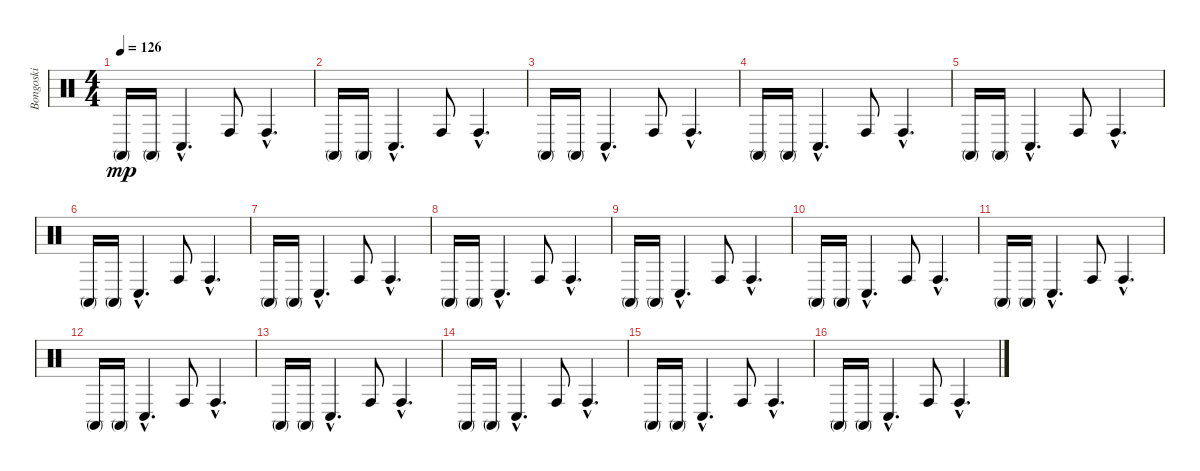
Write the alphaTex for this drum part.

\track ("Bongoski" "Bongoski") {instrument percussion}
\staff {score}
\articulation defaults
\ts (4 4)
\tempo 126
\clef neutral
\ks c "Conga high (mute)".16{dy mp} "Conga high (mute)".16 "Conga low (hit)"{hac}.4{d} "Conga high (hit)".8 "Conga high (hit)"{hac}.4{d}
|
"Conga high (mute)".16 "Conga high (mute)".16 "Conga low (hit)"{hac}.4{d} "Conga high (hit)".8 "Conga high (hit)"{hac}.4{d} |
"Conga high (mute)".16 "Conga high (mute)".16 "Conga low (hit)"{hac}.4{d} "Conga high (hit)".8 "Conga high (hit)"{hac}.4{d} |
"Conga high (mute)".16 "Conga high (mute)".16 "Conga low (hit)"{hac}.4{d} "Conga high (hit)".8 "Conga high (hit)"{hac}.4{d} |
"Conga high (mute)".16 "Conga high (mute)".16 "Conga low (hit)"{hac}.4{d} "Conga high (hit)".8 "Conga high (hit)"{hac}.4{d} |
"Conga high (mute)".16 "Conga high (mute)".16 "Conga low (hit)"{hac}.4{d} "Conga high (hit)".8 "Conga high (hit)"{hac}.4{d} |
"Conga high (mute)".16 "Conga high (mute)".16 "Conga low (hit)"{hac}.4{d} "Conga high (hit)".8 "Conga high (hit)"{hac}.4{d} |
"Conga high (mute)".16 "Conga high (mute)".16 "Conga low (hit)"{hac}.4{d} "Conga high (hit)".8 "Conga high (hit)"{hac}.4{d} |
"Conga high (mute)".16 "Conga high (mute)".16 "Conga low (hit)"{hac}.4{d} "Conga high (hit)".8 "Conga high (hit)"{hac}.4{d} |
"Conga high (mute)".16 "Conga high (mute)".16 "Conga low (hit)"{hac}.4{d} "Conga high (hit)".8 "Conga high (hit)"{hac}.4{d} |
"Conga high (mute)".16 "Conga high (mute)".16 "Conga low (hit)"{hac}.4{d} "Conga high (hit)".8 "Conga high (hit)"{hac}.4{d} |
"Conga high (mute)".16 "Conga high (mute)".16 "Conga low (hit)"{hac}.4{d} "Conga high (hit)".8 "Conga high (hit)"{hac}.4{d} |
"Conga high (mute)".16 "Conga high (mute)".16 "Conga low (hit)"{hac}.4{d} "Conga high (hit)".8 "Conga high (hit)"{hac}.4{d} |
"Conga high (mute)".16 "Conga high (mute)".16 "Conga low (hit)"{hac}.4{d} "Conga high (hit)".8 "Conga high (hit)"{hac}.4{d} |
"Conga high (mute)".16 "Conga high (mute)".16 "Conga low (hit)"{hac}.4{d} "Conga high (hit)".8 "Conga high (hit)"{hac}.4{d} |
"Conga high (mute)".16 "Conga high (mute)".16 "Conga low (hit)"{hac}.4{d} "Conga high (hit)".8 "Conga high (hit)"{hac}.4{d}
